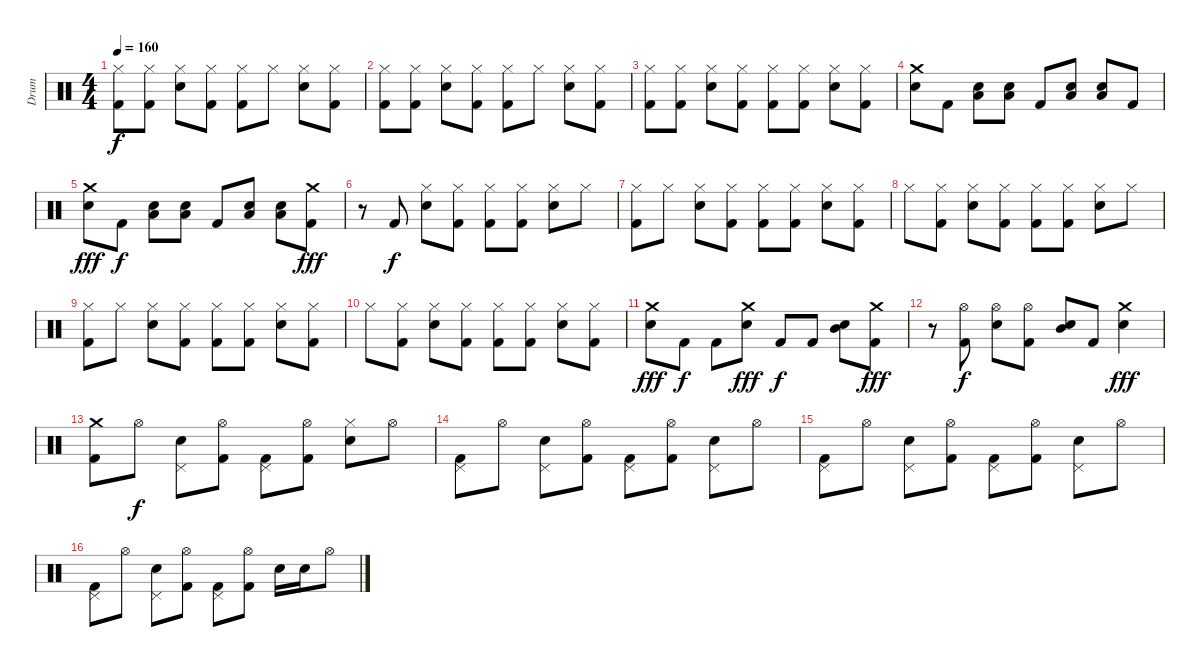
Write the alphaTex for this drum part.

\track ("Drum" "Drum") {instrument percussion}
\staff {score}
\articulation defaults
\ts (4 4)
\tempo 160
\clef neutral
\ks c
("Hi-Hat (closed)" "Kick (hit) 2").8{dy f} ("Hi-Hat (closed)" "Kick (hit) 2").8 ("Hi-Hat (closed)" "Snare (hit) 2").8 ("Hi-Hat (closed)" "Kick (hit) 2").8 ("Hi-Hat (closed)" "Kick (hit) 2").8 "Hi-Hat (closed)".8 ("Hi-Hat (closed)" "Snare (hit) 2").8 ("Hi-Hat (closed)" "Kick (hit) 2").8 |
("Hi-Hat (closed)" "Kick (hit) 2").8 ("Hi-Hat (closed)" "Kick (hit) 2").8 ("Hi-Hat (closed)" "Snare (hit) 2").8 ("Hi-Hat (closed)" "Kick (hit) 2").8 ("Hi-Hat (closed)" "Kick (hit) 2").8 "Hi-Hat (closed)".8 ("Hi-Hat (closed)" "Snare (hit) 2").8 ("Hi-Hat (closed)" "Kick (hit) 2").8 |
("Hi-Hat (closed)" "Kick (hit) 2").8 ("Hi-Hat (closed)" "Kick (hit) 2").8 ("Hi-Hat (closed)" "Snare (hit) 2").8 ("Hi-Hat (closed)" "Kick (hit) 2").8 ("Hi-Hat (closed)" "Kick (hit) 2").8 ("Hi-Hat (closed)" "Kick (hit) 2").8 ("Hi-Hat (closed)" "Snare (hit) 2").8 ("Hi-Hat (closed)" "Kick (hit) 2").8 |
("Crash medium (hit)" "Snare (hit) 2").8 "Kick (hit) 2".8 ("Snare (hit) 2" "Low Tom (hit)").8 ("Snare (hit) 2" "Low Tom (hit)").8 "Kick (hit) 2".8 ("Snare (hit) 2" "Low Tom (hit)").8 ("Snare (hit) 2" "Low Tom (hit)").8 "Kick (hit) 2".8 |
("Crash medium (hit)" "Snare (hit) 2").8{dy fff} "Kick (hit) 2".8{dy f} ("Snare (hit) 2" "Low Tom (hit)").8 ("Snare (hit) 2" "Low Tom (hit)").8 "Kick (hit) 2".8 ("Snare (hit) 2" "Low Tom (hit)").8 ("Snare (hit) 2" "Low Tom (hit)").8 ("Crash medium (hit)" "Kick (hit) 2").8{dy fff} |
r.8 "Kick (hit) 2".8{dy f} ("Hi-Hat (closed)" "Snare (hit) 2").8 ("Hi-Hat (closed)" "Kick (hit) 2").8 ("Hi-Hat (closed)" "Kick (hit) 2").8 ("Hi-Hat (closed)" "Kick (hit) 2").8 ("Hi-Hat (closed)" "Snare (hit) 2").8 "Hi-Hat (closed)".8 |
("Hi-Hat (closed)" "Kick (hit) 2").8 "Hi-Hat (closed)".8 ("Hi-Hat (closed)" "Snare (hit) 2").8 ("Hi-Hat (closed)" "Kick (hit) 2").8 ("Hi-Hat (closed)" "Kick (hit) 2").8 ("Hi-Hat (closed)" "Kick (hit) 2").8 ("Hi-Hat (closed)" "Snare (hit) 2").8 ("Hi-Hat (closed)" "Kick (hit) 2").8 |
"Hi-Hat (closed)".8 ("Hi-Hat (closed)" "Kick (hit) 2").8 ("Hi-Hat (closed)" "Snare (hit) 2").8 ("Hi-Hat (closed)" "Kick (hit) 2").8 ("Hi-Hat (closed)" "Kick (hit) 2").8 ("Hi-Hat (closed)" "Kick (hit) 2").8 ("Hi-Hat (closed)" "Snare (hit) 2").8 "Hi-Hat (closed)".8 |
("Hi-Hat (closed)" "Kick (hit) 2").8 "Hi-Hat (closed)".8 ("Hi-Hat (closed)" "Snare (hit) 2").8 ("Hi-Hat (closed)" "Kick (hit) 2").8 ("Hi-Hat (closed)" "Kick (hit) 2").8 ("Hi-Hat (closed)" "Kick (hit) 2").8 ("Hi-Hat (closed)" "Snare (hit) 2").8 ("Hi-Hat (closed)" "Kick (hit) 2").8 |
"Hi-Hat (closed)".8 ("Hi-Hat (closed)" "Kick (hit) 2").8 ("Hi-Hat (closed)" "Snare (hit) 2").8 ("Hi-Hat (closed)" "Kick (hit) 2").8 ("Hi-Hat (closed)" "Kick (hit) 2").8 ("Hi-Hat (closed)" "Kick (hit) 2").8 ("Hi-Hat (closed)" "Snare (hit) 2").8 ("Hi-Hat (closed)" "Kick (hit) 2").8 |
("Crash medium (hit)" "Snare (hit) 2").8{dy fff} "Kick (hit) 2".8{dy f} "Kick (hit) 2".8 ("Crash medium (hit)" "Snare (hit) 2").8{dy fff} "Kick (hit) 2".8{dy f} "Kick (hit) 2".8 ("Snare (hit) 2" "Mid Tom (hit)").8 ("Crash medium (hit)" "Kick (hit) 2").8{dy fff} |
r.8 ("Hi-Hat (open)" "Kick (hit) 2").8{dy f} ("Hi-Hat (open)" "Snare (hit) 2").8 ("Hi-Hat (open)" "Kick (hit) 2").8 ("Snare (hit) 2" "Mid Tom (hit)").8 "Kick (hit) 2".8 ("Crash medium (hit)" "Snare (hit) 2").4{dy fff} |
("Crash medium (hit)" "Kick (hit) 2").8 "Hi-Hat (open)".8{dy f} ("Pedal Hi-Hat (hit)" "Snare (hit) 2").8 ("Hi-Hat (open)" "Kick (hit) 2").8 ("Pedal Hi-Hat (hit)" "Kick (hit) 2").8 ("Hi-Hat (open)" "Kick (hit) 2").8 ("Hi-Hat (closed)" "Snare (hit) 2").8 "Hi-Hat (open)".8 |
("Pedal Hi-Hat (hit)" "Kick (hit) 2").8 "Hi-Hat (open)".8 ("Pedal Hi-Hat (hit)" "Snare (hit) 2").8 ("Hi-Hat (open)" "Kick (hit) 2").8 ("Pedal Hi-Hat (hit)" "Kick (hit) 2").8 ("Hi-Hat (open)" "Kick (hit) 2").8 ("Pedal Hi-Hat (hit)" "Snare (hit) 2").8 "Hi-Hat (open)".8 |
("Pedal Hi-Hat (hit)" "Kick (hit) 2").8 "Hi-Hat (open)".8 ("Pedal Hi-Hat (hit)" "Snare (hit) 2").8 ("Hi-Hat (open)" "Kick (hit) 2").8 ("Pedal Hi-Hat (hit)" "Kick (hit) 2").8 ("Hi-Hat (open)" "Kick (hit) 2").8 ("Pedal Hi-Hat (hit)" "Snare (hit) 2").8 "Hi-Hat (open)".8 |
("Pedal Hi-Hat (hit)" "Kick (hit) 2").8 "Hi-Hat (open)".8 ("Pedal Hi-Hat (hit)" "Snare (hit) 2").8 ("Hi-Hat (open)" "Kick (hit) 2").8 ("Pedal Hi-Hat (hit)" "Kick (hit) 2").8 ("Hi-Hat (open)" "Kick (hit) 2").8 "Snare (hit) 2".16 "Snare (hit) 2".16 "Hi-Hat (open)".8
